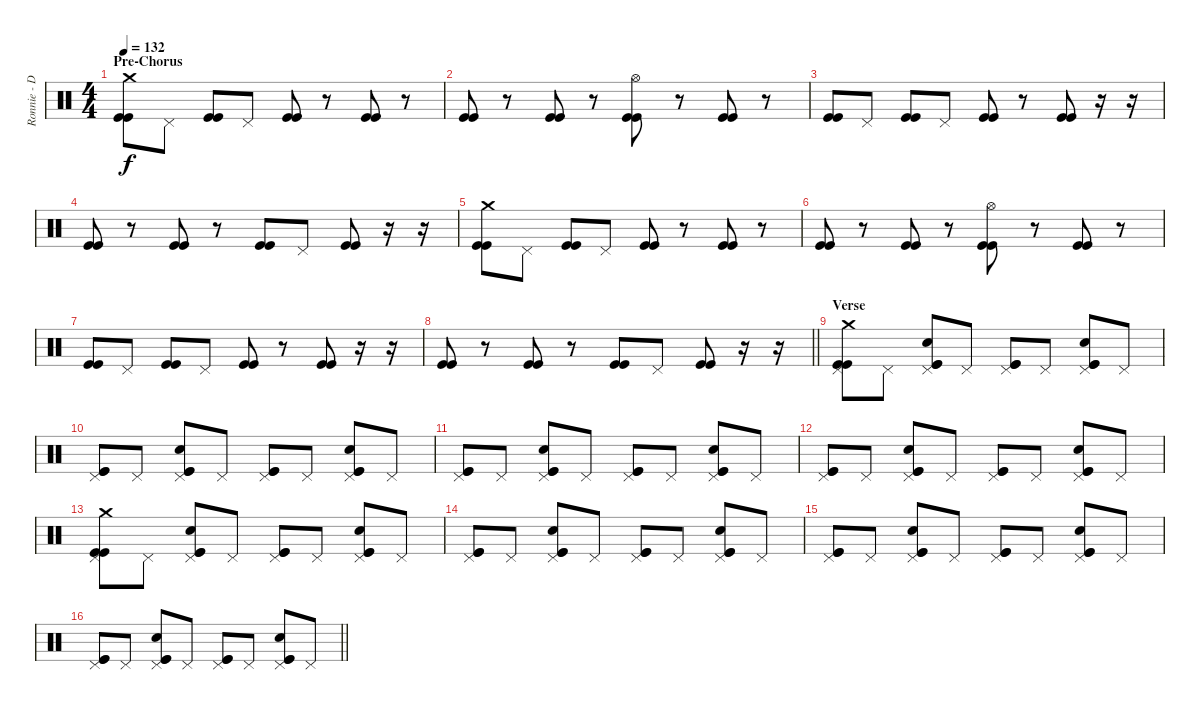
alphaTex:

\track ("Ronnie - Drums" "Ronnie - D") {instrument percussion}
\staff {score}
\articulation defaults
\ts (4 4)
\section ("" "Pre-Chorus")
\tempo 132
\clef neutral
\ks c
("Crash medium (hit)" "Kick (hit)" "Kick (hit)").8{dy f} "Pedal Hi-Hat (hit)".8 ("Kick (hit)" "Kick (hit)").8 "Pedal Hi-Hat (hit)".8 ("Kick (hit)" "Kick (hit)").8 r.8 ("Kick (hit)" "Kick (hit)").8 r.8 |
("Kick (hit)" "Kick (hit)").8 r.8 ("Kick (hit)" "Kick (hit)").8 r.8 ("Hi-Hat (open)" "Kick (hit)" "Kick (hit)").8 r.8 ("Kick (hit)" "Kick (hit)").8 r.8 |
("Kick (hit)" "Kick (hit)").8 "Pedal Hi-Hat (hit)".8 ("Kick (hit)" "Kick (hit)").8 "Pedal Hi-Hat (hit)".8 ("Kick (hit)" "Kick (hit)").8 r.8 ("Kick (hit)" "Kick (hit)").8 r.16 r.16 |
("Kick (hit)" "Kick (hit)").8 r.8 ("Kick (hit)" "Kick (hit)").8 r.8 ("Kick (hit)" "Kick (hit)").8 "Pedal Hi-Hat (hit)".8 ("Kick (hit)" "Kick (hit)").8 r.16 r.16 |
("Crash medium (hit)" "Kick (hit)" "Kick (hit)").8 "Pedal Hi-Hat (hit)".8 ("Kick (hit)" "Kick (hit)").8 "Pedal Hi-Hat (hit)".8 ("Kick (hit)" "Kick (hit)").8 r.8 ("Kick (hit)" "Kick (hit)").8 r.8 |
("Kick (hit)" "Kick (hit)").8 r.8 ("Kick (hit)" "Kick (hit)").8 r.8 ("Hi-Hat (open)" "Kick (hit)" "Kick (hit)").8 r.8 ("Kick (hit)" "Kick (hit)").8 r.8 |
("Kick (hit)" "Kick (hit)").8 "Pedal Hi-Hat (hit)".8 ("Kick (hit)" "Kick (hit)").8 "Pedal Hi-Hat (hit)".8 ("Kick (hit)" "Kick (hit)").8 r.8 ("Kick (hit)" "Kick (hit)").8 r.16 r.16 |
\barLineRight lightlight
("Kick (hit)" "Kick (hit)").8 r.8 ("Kick (hit)" "Kick (hit)").8 r.8 ("Kick (hit)" "Kick (hit)").8 "Pedal Hi-Hat (hit)".8 ("Kick (hit)" "Kick (hit)").8 r.16 r.16 |
\section ("" "Verse")
("Pedal Hi-Hat (hit)" "Crash medium (hit)" "Kick (hit)" "Kick (hit)").8 "Pedal Hi-Hat (hit)".8 ("Pedal Hi-Hat (hit)" "Electric Snare (hit)" "Kick (hit)" "Kick (hit)").8 "Pedal Hi-Hat (hit)".8 ("Pedal Hi-Hat (hit)" "Kick (hit)" "Kick (hit)").8 "Pedal Hi-Hat (hit)".8 ("Pedal Hi-Hat (hit)" "Electric Snare (hit)" "Kick (hit)" "Kick (hit)").8 "Pedal Hi-Hat (hit)".8 |
("Pedal Hi-Hat (hit)" "Kick (hit)" "Kick (hit)").8 "Pedal Hi-Hat (hit)".8 ("Pedal Hi-Hat (hit)" "Electric Snare (hit)" "Kick (hit)" "Kick (hit)").8 "Pedal Hi-Hat (hit)".8 ("Pedal Hi-Hat (hit)" "Kick (hit)" "Kick (hit)").8 "Pedal Hi-Hat (hit)".8 ("Pedal Hi-Hat (hit)" "Electric Snare (hit)" "Kick (hit)" "Kick (hit)").8 "Pedal Hi-Hat (hit)".8 |
("Pedal Hi-Hat (hit)" "Kick (hit)" "Kick (hit)").8 "Pedal Hi-Hat (hit)".8 ("Pedal Hi-Hat (hit)" "Electric Snare (hit)" "Kick (hit)" "Kick (hit)").8 "Pedal Hi-Hat (hit)".8 ("Pedal Hi-Hat (hit)" "Kick (hit)" "Kick (hit)").8 "Pedal Hi-Hat (hit)".8 ("Pedal Hi-Hat (hit)" "Electric Snare (hit)" "Kick (hit)" "Kick (hit)").8 "Pedal Hi-Hat (hit)".8 |
("Pedal Hi-Hat (hit)" "Kick (hit)" "Kick (hit)").8 "Pedal Hi-Hat (hit)".8 ("Pedal Hi-Hat (hit)" "Electric Snare (hit)" "Kick (hit)" "Kick (hit)").8 "Pedal Hi-Hat (hit)".8 ("Pedal Hi-Hat (hit)" "Kick (hit)" "Kick (hit)").8 "Pedal Hi-Hat (hit)".8 ("Pedal Hi-Hat (hit)" "Electric Snare (hit)" "Kick (hit)" "Kick (hit)").8 "Pedal Hi-Hat (hit)".8 |
("Pedal Hi-Hat (hit)" "Crash medium (hit)" "Kick (hit)" "Kick (hit)").8 "Pedal Hi-Hat (hit)".8 ("Pedal Hi-Hat (hit)" "Electric Snare (hit)" "Kick (hit)" "Kick (hit)").8 "Pedal Hi-Hat (hit)".8 ("Pedal Hi-Hat (hit)" "Kick (hit)" "Kick (hit)").8 "Pedal Hi-Hat (hit)".8 ("Pedal Hi-Hat (hit)" "Electric Snare (hit)" "Kick (hit)" "Kick (hit)").8 "Pedal Hi-Hat (hit)".8 |
("Pedal Hi-Hat (hit)" "Kick (hit)" "Kick (hit)").8 "Pedal Hi-Hat (hit)".8 ("Pedal Hi-Hat (hit)" "Electric Snare (hit)" "Kick (hit)" "Kick (hit)").8 "Pedal Hi-Hat (hit)".8 ("Pedal Hi-Hat (hit)" "Kick (hit)" "Kick (hit)").8 "Pedal Hi-Hat (hit)".8 ("Pedal Hi-Hat (hit)" "Electric Snare (hit)" "Kick (hit)" "Kick (hit)").8 "Pedal Hi-Hat (hit)".8 |
("Pedal Hi-Hat (hit)" "Kick (hit)" "Kick (hit)").8 "Pedal Hi-Hat (hit)".8 ("Pedal Hi-Hat (hit)" "Electric Snare (hit)" "Kick (hit)" "Kick (hit)").8 "Pedal Hi-Hat (hit)".8 ("Pedal Hi-Hat (hit)" "Kick (hit)" "Kick (hit)").8 "Pedal Hi-Hat (hit)".8 ("Pedal Hi-Hat (hit)" "Electric Snare (hit)" "Kick (hit)" "Kick (hit)").8 "Pedal Hi-Hat (hit)".8 |
\barLineRight lightlight
("Pedal Hi-Hat (hit)" "Kick (hit)" "Kick (hit)").8 "Pedal Hi-Hat (hit)".8 ("Pedal Hi-Hat (hit)" "Electric Snare (hit)" "Kick (hit)" "Kick (hit)").8 "Pedal Hi-Hat (hit)".8 ("Pedal Hi-Hat (hit)" "Kick (hit)" "Kick (hit)").8 "Pedal Hi-Hat (hit)".8 ("Pedal Hi-Hat (hit)" "Electric Snare (hit)" "Kick (hit)" "Kick (hit)").8 "Pedal Hi-Hat (hit)".8
